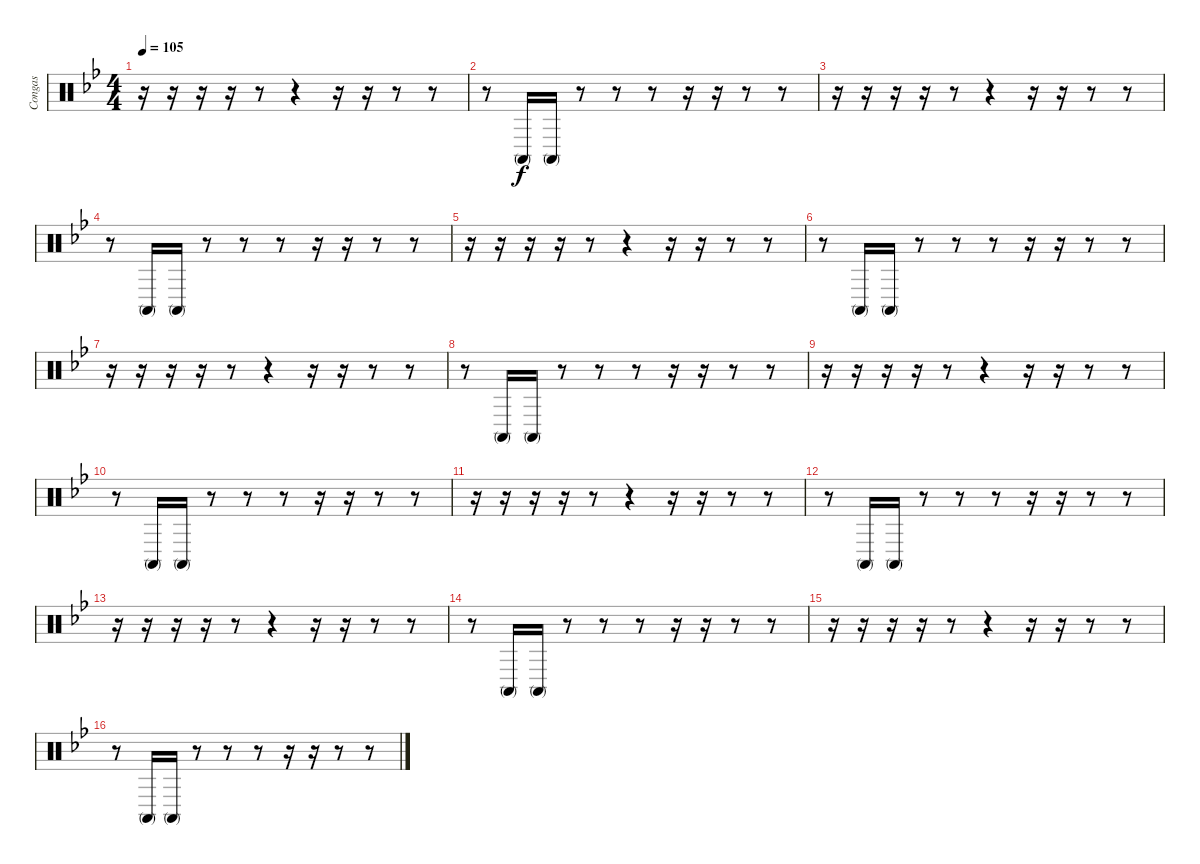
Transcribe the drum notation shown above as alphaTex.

\track ("Congas" "Congas") {instrument percussion}
\staff {score}
\articulation defaults
\ts (4 4)
\tempo 105
\clef neutral
\ks gminor
r.16{dy f} r.16 r.16 r.16 r.8 r.4 r.16 r.16 r.8 r.8 |
r.8 "Conga high (mute)".16 "Conga high (mute)".16 r.8 r.8 r.8 r.16 r.16 r.8 r.8 |
r.16 r.16 r.16 r.16 r.8 r.4 r.16 r.16 r.8 r.8 |
r.8 "Conga high (mute)".16 "Conga high (mute)".16 r.8 r.8 r.8 r.16 r.16 r.8 r.8 |
r.16 r.16 r.16 r.16 r.8 r.4 r.16 r.16 r.8 r.8 |
r.8 "Conga high (mute)".16 "Conga high (mute)".16 r.8 r.8 r.8 r.16 r.16 r.8 r.8 |
r.16 r.16 r.16 r.16 r.8 r.4 r.16 r.16 r.8 r.8 |
r.8 "Conga high (mute)".16 "Conga high (mute)".16 r.8 r.8 r.8 r.16 r.16 r.8 r.8 |
r.16 r.16 r.16 r.16 r.8 r.4 r.16 r.16 r.8 r.8 |
r.8 "Conga high (mute)".16 "Conga high (mute)".16 r.8 r.8 r.8 r.16 r.16 r.8 r.8 |
r.16 r.16 r.16 r.16 r.8 r.4 r.16 r.16 r.8 r.8 |
r.8 "Conga high (mute)".16 "Conga high (mute)".16 r.8 r.8 r.8 r.16 r.16 r.8 r.8 |
r.16 r.16 r.16 r.16 r.8 r.4 r.16 r.16 r.8 r.8 |
r.8 "Conga high (mute)".16 "Conga high (mute)".16 r.8 r.8 r.8 r.16 r.16 r.8 r.8 |
r.16 r.16 r.16 r.16 r.8 r.4 r.16 r.16 r.8 r.8 |
r.8 "Conga high (mute)".16 "Conga high (mute)".16 r.8 r.8 r.8 r.16 r.16 r.8 r.8
